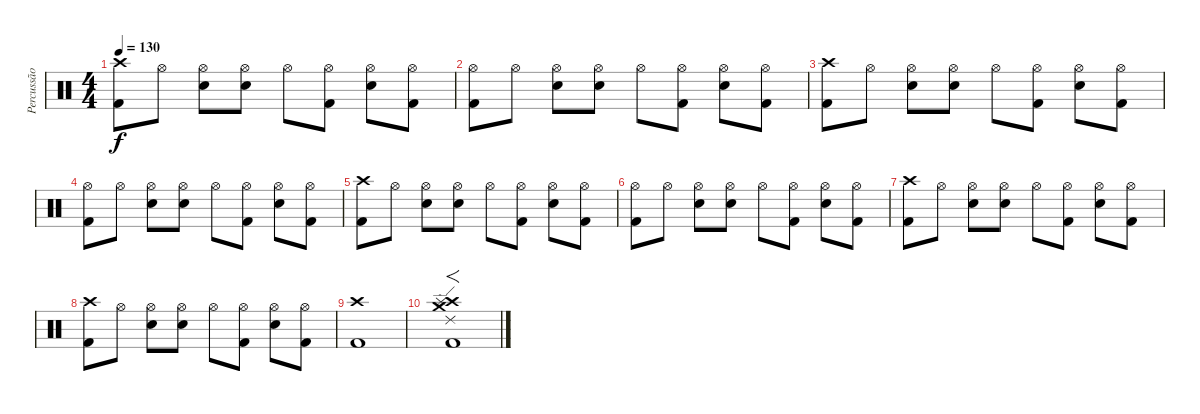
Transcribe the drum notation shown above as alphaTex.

\track ("Percussão" "Percussão") {instrument percussion}
\staff {score}
\articulation defaults
\ts (4 4)
\tempo 130
\clef neutral
\ks c
("Crash high (hit)" "Kick (hit) 2").8{dy f} "Hi-Hat (open)".8 ("Hi-Hat (open)" "Electric Snare (hit)").8 ("Hi-Hat (open)" "Electric Snare (hit)").8 "Hi-Hat (open)".8 ("Hi-Hat (open)" "Kick (hit) 2").8 ("Hi-Hat (open)" "Electric Snare (hit)").8 ("Hi-Hat (open)" "Kick (hit) 2").8 |
("Hi-Hat (open)" "Kick (hit) 2").8 "Hi-Hat (open)".8 ("Hi-Hat (open)" "Electric Snare (hit)").8 ("Hi-Hat (open)" "Electric Snare (hit)").8 "Hi-Hat (open)".8 ("Hi-Hat (open)" "Kick (hit) 2").8 ("Hi-Hat (open)" "Electric Snare (hit)").8 ("Hi-Hat (open)" "Kick (hit) 2").8 |
("Crash high (hit)" "Kick (hit) 2").8 "Hi-Hat (open)".8 ("Hi-Hat (open)" "Electric Snare (hit)").8 ("Hi-Hat (open)" "Electric Snare (hit)").8 "Hi-Hat (open)".8 ("Hi-Hat (open)" "Kick (hit) 2").8 ("Hi-Hat (open)" "Electric Snare (hit)").8 ("Hi-Hat (open)" "Kick (hit) 2").8 |
("Hi-Hat (open)" "Kick (hit) 2").8 "Hi-Hat (open)".8 ("Hi-Hat (open)" "Electric Snare (hit)").8 ("Hi-Hat (open)" "Electric Snare (hit)").8 "Hi-Hat (open)".8 ("Hi-Hat (open)" "Kick (hit) 2").8 ("Hi-Hat (open)" "Electric Snare (hit)").8 ("Hi-Hat (open)" "Kick (hit) 2").8 |
("Crash high (hit)" "Kick (hit) 2").8 "Hi-Hat (open)".8 ("Hi-Hat (open)" "Electric Snare (hit)").8 ("Hi-Hat (open)" "Electric Snare (hit)").8 "Hi-Hat (open)".8 ("Hi-Hat (open)" "Kick (hit) 2").8 ("Hi-Hat (open)" "Electric Snare (hit)").8 ("Hi-Hat (open)" "Kick (hit) 2").8 |
("Hi-Hat (open)" "Kick (hit) 2").8 "Hi-Hat (open)".8 ("Hi-Hat (open)" "Electric Snare (hit)").8 ("Hi-Hat (open)" "Electric Snare (hit)").8 "Hi-Hat (open)".8 ("Hi-Hat (open)" "Kick (hit) 2").8 ("Hi-Hat (open)" "Electric Snare (hit)").8 ("Hi-Hat (open)" "Kick (hit) 2").8 |
("Crash high (hit)" "Kick (hit) 2").8 "Hi-Hat (open)".8 ("Hi-Hat (open)" "Electric Snare (hit)").8 ("Hi-Hat (open)" "Electric Snare (hit)").8 "Hi-Hat (open)".8 ("Hi-Hat (open)" "Kick (hit) 2").8 ("Hi-Hat (open)" "Electric Snare (hit)").8 ("Hi-Hat (open)" "Kick (hit) 2").8 |
("Crash high (hit)" "Kick (hit) 2").8 "Hi-Hat (open)".8 ("Hi-Hat (open)" "Electric Snare (hit)").8 ("Hi-Hat (open)" "Electric Snare (hit)").8 "Hi-Hat (open)".8 ("Hi-Hat (open)" "Kick (hit) 2").8 ("Hi-Hat (open)" "Electric Snare (hit)").8 ("Hi-Hat (open)" "Kick (hit) 2").8 |
("Crash high (hit)" "Kick (hit) 2").1 |
("Crash high (hit)" "Crash medium (hit)" "Splash (hit)" "Ride (edge) 2" "Kick (hit) 2").1{f bu 240}
